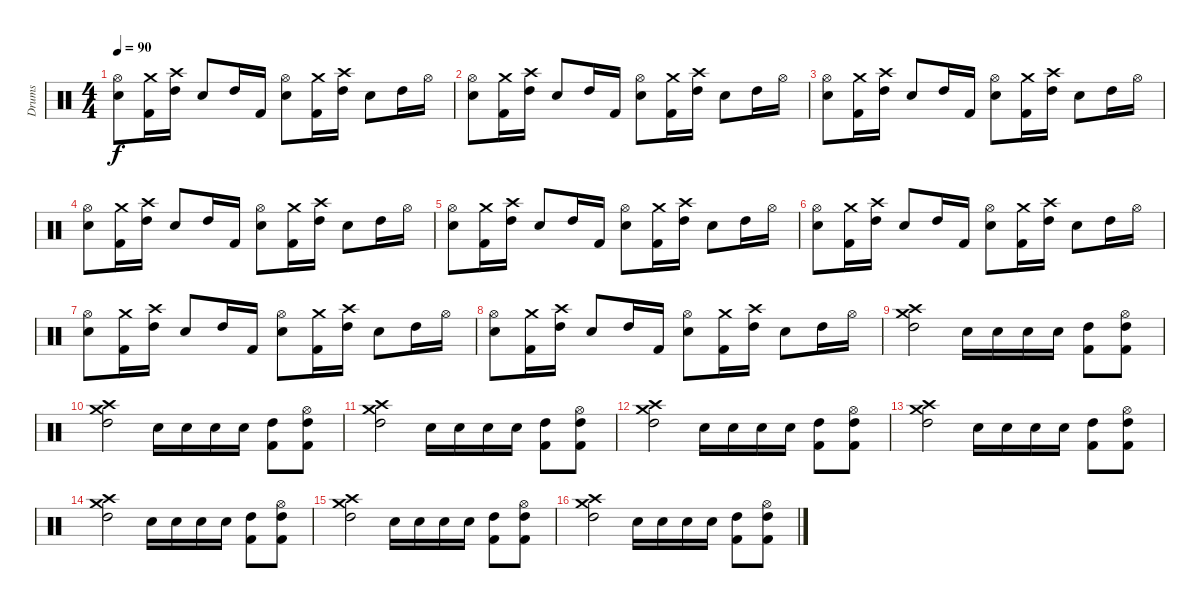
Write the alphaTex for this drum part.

\track ("Drums" "Drums") {instrument percussion}
\staff {score}
\articulation defaults
\ts (4 4)
\tempo 90
\clef neutral
\ks c
("Electric Snare (hit)" "Hi-Hat (open)").8{dy f} ("Crash medium (hit)" "Kick (hit) 2").16 ("High Tom (hit)" "Crash high (hit)").16 "Electric Snare (hit)".8 "High Tom (hit)".16 "Kick (hit) 2".16 ("Hi-Hat (open)" "Electric Snare (hit)").8 ("Crash medium (hit)" "Kick (hit) 2").16 ("High Tom (hit)" "Crash high (hit)").16 "Electric Snare (hit)".8 "High Tom (hit)".16 "Hi-Hat (open)".16 |
("Electric Snare (hit)" "Hi-Hat (open)").8 ("Crash medium (hit)" "Kick (hit) 2").16 ("High Tom (hit)" "Crash high (hit)").16 "Electric Snare (hit)".8 "High Tom (hit)".16 "Kick (hit) 2".16 ("Hi-Hat (open)" "Electric Snare (hit)").8 ("Crash medium (hit)" "Kick (hit) 2").16 ("High Tom (hit)" "Crash high (hit)").16 "Electric Snare (hit)".8 "High Tom (hit)".16 "Hi-Hat (open)".16 |
("Electric Snare (hit)" "Hi-Hat (open)").8 ("Crash medium (hit)" "Kick (hit) 2").16 ("High Tom (hit)" "Crash high (hit)").16 "Electric Snare (hit)".8 "High Tom (hit)".16 "Kick (hit) 2".16 ("Hi-Hat (open)" "Electric Snare (hit)").8 ("Crash medium (hit)" "Kick (hit) 2").16 ("High Tom (hit)" "Crash high (hit)").16 "Electric Snare (hit)".8 "High Tom (hit)".16 "Hi-Hat (open)".16 |
("Electric Snare (hit)" "Hi-Hat (open)").8 ("Crash medium (hit)" "Kick (hit) 2").16 ("High Tom (hit)" "Crash high (hit)").16 "Electric Snare (hit)".8 "High Tom (hit)".16 "Kick (hit) 2".16 ("Hi-Hat (open)" "Electric Snare (hit)").8 ("Crash medium (hit)" "Kick (hit) 2").16 ("High Tom (hit)" "Crash high (hit)").16 "Electric Snare (hit)".8 "High Tom (hit)".16 "Hi-Hat (open)".16 |
("Electric Snare (hit)" "Hi-Hat (open)").8 ("Crash medium (hit)" "Kick (hit) 2").16 ("High Tom (hit)" "Crash high (hit)").16 "Electric Snare (hit)".8 "High Tom (hit)".16 "Kick (hit) 2".16 ("Hi-Hat (open)" "Electric Snare (hit)").8 ("Crash medium (hit)" "Kick (hit) 2").16 ("High Tom (hit)" "Crash high (hit)").16 "Electric Snare (hit)".8 "High Tom (hit)".16 "Hi-Hat (open)".16 |
("Electric Snare (hit)" "Hi-Hat (open)").8 ("Crash medium (hit)" "Kick (hit) 2").16 ("High Tom (hit)" "Crash high (hit)").16 "Electric Snare (hit)".8 "High Tom (hit)".16 "Kick (hit) 2".16 ("Hi-Hat (open)" "Electric Snare (hit)").8 ("Crash medium (hit)" "Kick (hit) 2").16 ("High Tom (hit)" "Crash high (hit)").16 "Electric Snare (hit)".8 "High Tom (hit)".16 "Hi-Hat (open)".16 |
("Electric Snare (hit)" "Hi-Hat (open)").8 ("Crash medium (hit)" "Kick (hit) 2").16 ("High Tom (hit)" "Crash high (hit)").16 "Electric Snare (hit)".8 "High Tom (hit)".16 "Kick (hit) 2".16 ("Hi-Hat (open)" "Electric Snare (hit)").8 ("Crash medium (hit)" "Kick (hit) 2").16 ("High Tom (hit)" "Crash high (hit)").16 "Electric Snare (hit)".8 "High Tom (hit)".16 "Hi-Hat (open)".16 |
("Electric Snare (hit)" "Hi-Hat (open)").8 ("Crash medium (hit)" "Kick (hit) 2").16 ("High Tom (hit)" "Crash high (hit)").16 "Electric Snare (hit)".8 "High Tom (hit)".16 "Kick (hit) 2".16 ("Hi-Hat (open)" "Electric Snare (hit)").8 ("Crash medium (hit)" "Kick (hit) 2").16 ("High Tom (hit)" "Crash high (hit)").16 "Electric Snare (hit)".8 "High Tom (hit)".16 "Hi-Hat (open)".16 |
("High Tom (hit)" "Crash medium (hit)" "Crash high (hit)").2 "Electric Snare (hit)".16 "Electric Snare (hit)".16 "Electric Snare (hit)".16 "Electric Snare (hit)".16 ("High Tom (hit)" "Kick (hit) 2").8 ("Hi-Hat (open)" "Kick (hit) 2" "High Tom (hit)").8 |
("High Tom (hit)" "Crash medium (hit)" "Crash high (hit)").2 "Electric Snare (hit)".16 "Electric Snare (hit)".16 "Electric Snare (hit)".16 "Electric Snare (hit)".16 ("High Tom (hit)" "Kick (hit) 2").8 ("Hi-Hat (open)" "Kick (hit) 2" "High Tom (hit)").8 |
("High Tom (hit)" "Crash medium (hit)" "Crash high (hit)").2 "Electric Snare (hit)".16 "Electric Snare (hit)".16 "Electric Snare (hit)".16 "Electric Snare (hit)".16 ("High Tom (hit)" "Kick (hit) 2").8 ("Hi-Hat (open)" "Kick (hit) 2" "High Tom (hit)").8 |
("High Tom (hit)" "Crash medium (hit)" "Crash high (hit)").2 "Electric Snare (hit)".16 "Electric Snare (hit)".16 "Electric Snare (hit)".16 "Electric Snare (hit)".16 ("High Tom (hit)" "Kick (hit) 2").8 ("Hi-Hat (open)" "Kick (hit) 2" "High Tom (hit)").8 |
("High Tom (hit)" "Crash medium (hit)" "Crash high (hit)").2 "Electric Snare (hit)".16 "Electric Snare (hit)".16 "Electric Snare (hit)".16 "Electric Snare (hit)".16 ("High Tom (hit)" "Kick (hit) 2").8 ("Hi-Hat (open)" "Kick (hit) 2" "High Tom (hit)").8 |
("High Tom (hit)" "Crash medium (hit)" "Crash high (hit)").2 "Electric Snare (hit)".16 "Electric Snare (hit)".16 "Electric Snare (hit)".16 "Electric Snare (hit)".16 ("High Tom (hit)" "Kick (hit) 2").8 ("Hi-Hat (open)" "Kick (hit) 2" "High Tom (hit)").8 |
("High Tom (hit)" "Crash medium (hit)" "Crash high (hit)").2 "Electric Snare (hit)".16 "Electric Snare (hit)".16 "Electric Snare (hit)".16 "Electric Snare (hit)".16 ("High Tom (hit)" "Kick (hit) 2").8 ("Hi-Hat (open)" "Kick (hit) 2" "High Tom (hit)").8 |
("High Tom (hit)" "Crash medium (hit)" "Crash high (hit)").2 "Electric Snare (hit)".16 "Electric Snare (hit)".16 "Electric Snare (hit)".16 "Electric Snare (hit)".16 ("High Tom (hit)" "Kick (hit) 2").8 ("Hi-Hat (open)" "Kick (hit) 2" "High Tom (hit)").8
